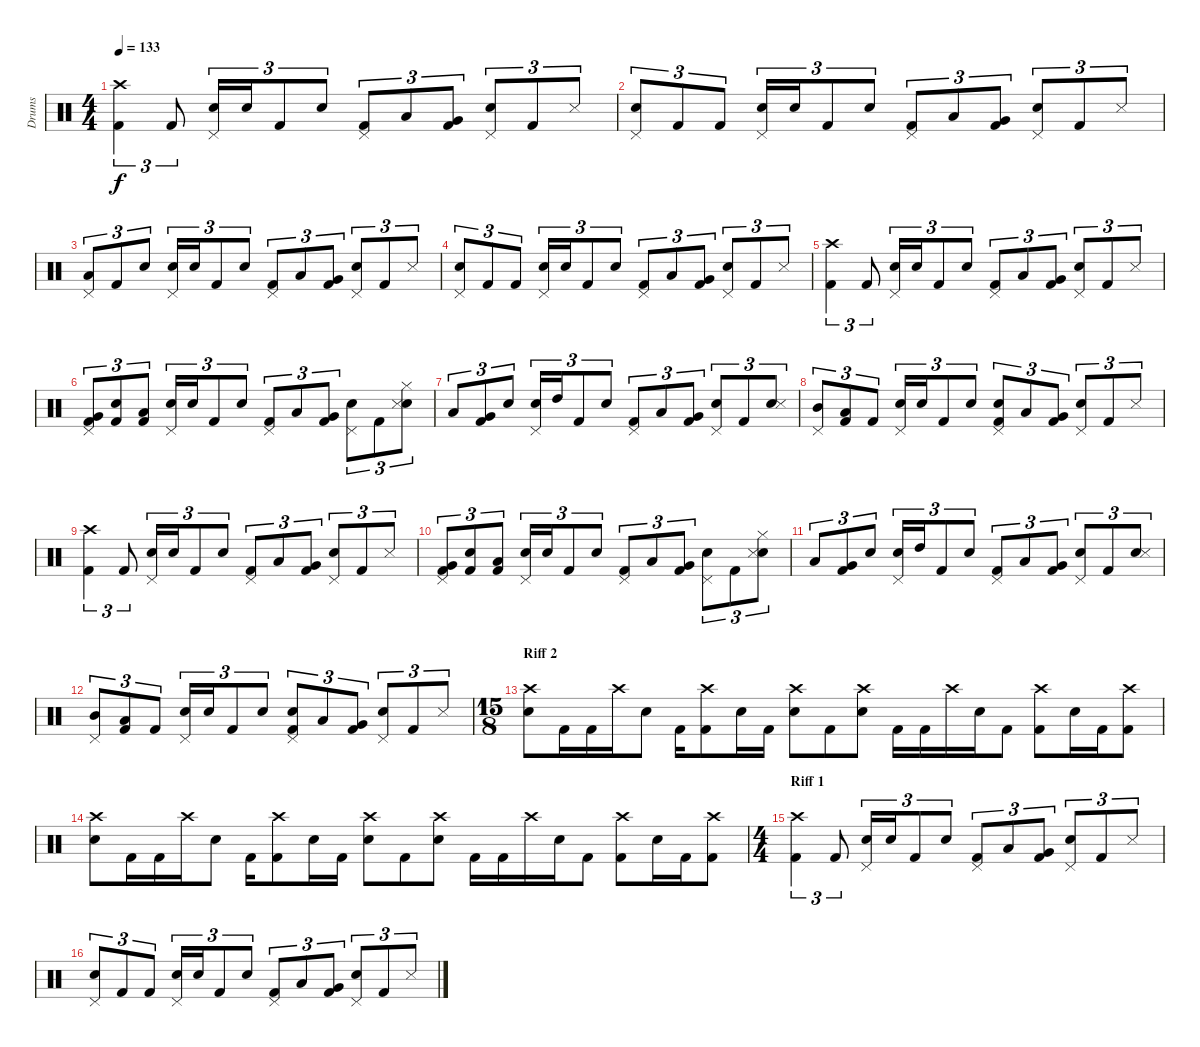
\track ("Drums" "Drums") {instrument percussion}
\staff {score}
\articulation defaults
\ts (4 4)
\tempo 133
\clef neutral
\ks c
("Kick (hit) 2" "Crash high (hit)").4{tu (3 2) dy f} "Kick (hit) 2".8{tu (3 2)} ("Snare (hit) 2" "Pedal Hi-Hat (hit)").16{tu (3 2)} "Snare (hit) 2".16{tu (3 2)} "Kick (hit) 2".8{tu (3 2)} "Snare (hit) 2".8{tu (3 2)} ("Kick (hit) 2" "Pedal Hi-Hat (hit)").8{tu (3 2)} "Low Tom (hit)".8{tu (3 2)} ("Kick (hit) 2" "Very Low Tom (hit)").8{tu (3 2)} ("Snare (hit) 2" "Pedal Hi-Hat (hit)").8{tu (3 2)} "Kick (hit) 2".8{tu (3 2)} "Snare (side stick) 3".8{tu (3 2)} |
("Snare (hit) 2" "Pedal Hi-Hat (hit)").8{tu (3 2)} "Kick (hit) 2".8{tu (3 2)} "Kick (hit) 2".8{tu (3 2)} ("Snare (hit) 2" "Pedal Hi-Hat (hit)").16{tu (3 2)} "Snare (hit) 2".16{tu (3 2)} "Kick (hit) 2".8{tu (3 2)} "Snare (hit) 2".8{tu (3 2)} ("Kick (hit) 2" "Pedal Hi-Hat (hit)").8{tu (3 2)} "Low Tom (hit)".8{tu (3 2)} ("Kick (hit) 2" "Very Low Tom (hit)").8{tu (3 2)} ("Snare (hit) 2" "Pedal Hi-Hat (hit)").8{tu (3 2)} "Kick (hit) 2".8{tu (3 2)} "Snare (side stick) 3".8{tu (3 2)} |
("Low Tom (hit)" "Pedal Hi-Hat (hit)").8{tu (3 2)} "Kick (hit) 2".8{tu (3 2)} "Snare (hit) 2".8{tu (3 2)} ("Snare (hit) 2" "Pedal Hi-Hat (hit)").16{tu (3 2)} "Snare (hit) 2".16{tu (3 2)} "Kick (hit) 2".8{tu (3 2)} "Snare (hit) 2".8{tu (3 2)} ("Kick (hit) 2" "Pedal Hi-Hat (hit)").8{tu (3 2)} "Low Tom (hit)".8{tu (3 2)} ("Kick (hit) 2" "Very Low Tom (hit)").8{tu (3 2)} ("Snare (hit) 2" "Pedal Hi-Hat (hit)").8{tu (3 2)} "Kick (hit) 2".8{tu (3 2)} "Snare (side stick) 3".8{tu (3 2)} |
("Snare (hit) 2" "Pedal Hi-Hat (hit)").8{tu (3 2)} "Kick (hit) 2".8{tu (3 2)} "Kick (hit) 2".8{tu (3 2)} ("Snare (hit) 2" "Pedal Hi-Hat (hit)").16{tu (3 2)} "Snare (hit) 2".16{tu (3 2)} "Kick (hit) 2".8{tu (3 2)} "Snare (hit) 2".8{tu (3 2)} ("Kick (hit) 2" "Pedal Hi-Hat (hit)").8{tu (3 2)} "Low Tom (hit)".8{tu (3 2)} ("Kick (hit) 2" "Very Low Tom (hit)").8{tu (3 2)} ("Snare (hit) 2" "Pedal Hi-Hat (hit)").8{tu (3 2)} "Kick (hit) 2".8{tu (3 2)} "Snare (side stick) 3".8{tu (3 2)} |
("Kick (hit) 2" "Crash high (hit)").4{tu (3 2)} "Kick (hit) 2".8{tu (3 2)} ("Snare (hit) 2" "Pedal Hi-Hat (hit)").16{tu (3 2)} "Snare (hit) 2".16{tu (3 2)} "Kick (hit) 2".8{tu (3 2)} "Snare (hit) 2".8{tu (3 2)} ("Kick (hit) 2" "Pedal Hi-Hat (hit)").8{tu (3 2)} "Low Tom (hit)".8{tu (3 2)} ("Kick (hit) 2" "Very Low Tom (hit)").8{tu (3 2)} ("Snare (hit) 2" "Pedal Hi-Hat (hit)").8{tu (3 2)} "Kick (hit) 2".8{tu (3 2)} "Snare (side stick) 3".8{tu (3 2)} |
("Kick (hit) 2" "Very Low Tom (hit)" "Pedal Hi-Hat (hit)").8{tu (3 2)} ("Kick (hit) 2" "Snare (hit) 2").8{tu (3 2)} ("Kick (hit) 2" "Low Tom (hit)").8{tu (3 2)} ("Snare (hit) 2" "Pedal Hi-Hat (hit)").16{tu (3 2)} "Snare (hit) 2".16{tu (3 2)} "Kick (hit) 2".8{tu (3 2)} "Snare (hit) 2".8{tu (3 2)} ("Kick (hit) 2" "Pedal Hi-Hat (hit)").8{tu (3 2)} "Low Tom (hit)".8{tu (3 2)} ("Kick (hit) 2" "Very Low Tom (hit)").8{tu (3 2)} ("Snare (hit) 2" "Pedal Hi-Hat (hit)").8{tu (3 2)} "Kick (hit) 2".8{tu (3 2)} ("Snare (hit) 2" "Snare (side stick) 3" "Hi-Hat (closed)").8{tu (3 2)} |
"Low Tom (hit)".8{tu (3 2)} ("Kick (hit) 2" "Very Low Tom (hit)").8{tu (3 2)} "Snare (hit) 2".8{tu (3 2)} ("Snare (hit) 2" "Pedal Hi-Hat (hit)").16{tu (3 2)} "High Tom (hit)".16{tu (3 2)} "Kick (hit) 2".8{tu (3 2)} "Snare (hit) 2".8{tu (3 2)} ("Kick (hit) 2" "Pedal Hi-Hat (hit)").8{tu (3 2)} "Low Tom (hit)".8{tu (3 2)} ("Kick (hit) 2" "Very Low Tom (hit)").8{tu (3 2)} ("Snare (hit) 2" "Pedal Hi-Hat (hit)").8{tu (3 2)} "Kick (hit) 2".8{tu (3 2)} ("Snare (hit) 2" "Snare (side stick) 3").8{tu (3 2)} |
("Mid Tom (hit)" "Pedal Hi-Hat (hit)").8{tu (3 2)} ("Kick (hit) 2" "Low Tom (hit)").8{tu (3 2)} "Kick (hit) 2".8{tu (3 2)} ("Snare (hit) 2" "Pedal Hi-Hat (hit)").16{tu (3 2)} "Snare (hit) 2".16{tu (3 2)} "Kick (hit) 2".8{tu (3 2)} "Snare (hit) 2".8{tu (3 2)} ("Kick (hit) 2" "Snare (hit) 2" "Pedal Hi-Hat (hit)").8{tu (3 2)} "Low Tom (hit)".8{tu (3 2)} ("Kick (hit) 2" "Very Low Tom (hit)").8{tu (3 2)} ("Snare (hit) 2" "Pedal Hi-Hat (hit)").8{tu (3 2)} "Kick (hit) 2".8{tu (3 2)} "Snare (side stick) 3".8{tu (3 2)} |
("Kick (hit) 2" "Crash high (hit)").4{tu (3 2)} "Kick (hit) 2".8{tu (3 2)} ("Snare (hit) 2" "Pedal Hi-Hat (hit)").16{tu (3 2)} "Snare (hit) 2".16{tu (3 2)} "Kick (hit) 2".8{tu (3 2)} "Snare (hit) 2".8{tu (3 2)} ("Kick (hit) 2" "Pedal Hi-Hat (hit)").8{tu (3 2)} "Low Tom (hit)".8{tu (3 2)} ("Kick (hit) 2" "Very Low Tom (hit)").8{tu (3 2)} ("Snare (hit) 2" "Pedal Hi-Hat (hit)").8{tu (3 2)} "Kick (hit) 2".8{tu (3 2)} "Snare (side stick) 3".8{tu (3 2)} |
("Kick (hit) 2" "Very Low Tom (hit)" "Pedal Hi-Hat (hit)").8{tu (3 2)} ("Kick (hit) 2" "Snare (hit) 2").8{tu (3 2)} ("Kick (hit) 2" "Low Tom (hit)").8{tu (3 2)} ("Snare (hit) 2" "Pedal Hi-Hat (hit)").16{tu (3 2)} "Snare (hit) 2".16{tu (3 2)} "Kick (hit) 2".8{tu (3 2)} "Snare (hit) 2".8{tu (3 2)} ("Kick (hit) 2" "Pedal Hi-Hat (hit)").8{tu (3 2)} "Low Tom (hit)".8{tu (3 2)} ("Kick (hit) 2" "Very Low Tom (hit)").8{tu (3 2)} ("Snare (hit) 2" "Pedal Hi-Hat (hit)").8{tu (3 2)} "Kick (hit) 2".8{tu (3 2)} ("Snare (hit) 2" "Snare (side stick) 3" "Hi-Hat (closed)").8{tu (3 2)} |
"Low Tom (hit)".8{tu (3 2)} ("Kick (hit) 2" "Very Low Tom (hit)").8{tu (3 2)} "Snare (hit) 2".8{tu (3 2)} ("Snare (hit) 2" "Pedal Hi-Hat (hit)").16{tu (3 2)} "High Tom (hit)".16{tu (3 2)} "Kick (hit) 2".8{tu (3 2)} "Snare (hit) 2".8{tu (3 2)} ("Kick (hit) 2" "Pedal Hi-Hat (hit)").8{tu (3 2)} "Low Tom (hit)".8{tu (3 2)} ("Kick (hit) 2" "Very Low Tom (hit)").8{tu (3 2)} ("Snare (hit) 2" "Pedal Hi-Hat (hit)").8{tu (3 2)} "Kick (hit) 2".8{tu (3 2)} ("Snare (hit) 2" "Snare (side stick) 3").8{tu (3 2)} |
("Mid Tom (hit)" "Pedal Hi-Hat (hit)").8{tu (3 2)} ("Kick (hit) 2" "Low Tom (hit)").8{tu (3 2)} "Kick (hit) 2".8{tu (3 2)} ("Snare (hit) 2" "Pedal Hi-Hat (hit)").16{tu (3 2)} "Snare (hit) 2".16{tu (3 2)} "Kick (hit) 2".8{tu (3 2)} "Snare (hit) 2".8{tu (3 2)} ("Kick (hit) 2" "Snare (hit) 2" "Pedal Hi-Hat (hit)").8{tu (3 2)} "Low Tom (hit)".8{tu (3 2)} ("Kick (hit) 2" "Very Low Tom (hit)").8{tu (3 2)} ("Snare (hit) 2" "Pedal Hi-Hat (hit)").8{tu (3 2)} "Kick (hit) 2".8{tu (3 2)} "Snare (side stick) 3".8{tu (3 2)} |
\ts (15 8)
\section ("" "Riff 2")
("Snare (hit) 2" "Crash high (hit)").8 "Kick (hit) 2".16 "Kick (hit) 2".16 "Crash high (hit)".16 "Snare (hit) 2".8 "Kick (hit) 2".16 ("Kick (hit) 2" "Crash high (hit)").8 "Snare (hit) 2".16 "Kick (hit) 2".16 ("Snare (hit) 2" "Crash high (hit)").8 "Kick (hit) 2".8 ("Snare (hit) 2" "Crash high (hit)").8 "Kick (hit) 2".16 "Kick (hit) 2".16 "Crash high (hit)".16 "Snare (hit) 2".16 "Kick (hit) 2".8 ("Kick (hit) 2" "Crash high (hit)").8 "Snare (hit) 2".16 "Kick (hit) 2".16 ("Kick (hit) 2" "Crash high (hit)").8 |
("Snare (hit) 2" "Crash high (hit)").8 "Kick (hit) 2".16 "Kick (hit) 2".16 "Crash high (hit)".16 "Snare (hit) 2".8 "Kick (hit) 2".16 ("Kick (hit) 2" "Crash high (hit)").8 "Snare (hit) 2".16 "Kick (hit) 2".16 ("Snare (hit) 2" "Crash high (hit)").8 "Kick (hit) 2".8 ("Snare (hit) 2" "Crash high (hit)").8 "Kick (hit) 2".16 "Kick (hit) 2".16 "Crash high (hit)".16 "Snare (hit) 2".16 "Kick (hit) 2".8 ("Kick (hit) 2" "Crash high (hit)").8 "Snare (hit) 2".16 "Kick (hit) 2".16 ("Kick (hit) 2" "Crash high (hit)").8 |
\ts (4 4)
\section ("" "Riff 1")
("Kick (hit) 2" "Crash high (hit)").4{tu (3 2)} "Kick (hit) 2".8{tu (3 2)} ("Snare (hit) 2" "Pedal Hi-Hat (hit)").16{tu (3 2)} "Snare (hit) 2".16{tu (3 2)} "Kick (hit) 2".8{tu (3 2)} "Snare (hit) 2".8{tu (3 2)} ("Kick (hit) 2" "Pedal Hi-Hat (hit)").8{tu (3 2)} "Low Tom (hit)".8{tu (3 2)} ("Kick (hit) 2" "Very Low Tom (hit)").8{tu (3 2)} ("Snare (hit) 2" "Pedal Hi-Hat (hit)").8{tu (3 2)} "Kick (hit) 2".8{tu (3 2)} "Snare (side stick) 3".8{tu (3 2)} |
("Snare (hit) 2" "Pedal Hi-Hat (hit)").8{tu (3 2)} "Kick (hit) 2".8{tu (3 2)} "Kick (hit) 2".8{tu (3 2)} ("Snare (hit) 2" "Pedal Hi-Hat (hit)").16{tu (3 2)} "Snare (hit) 2".16{tu (3 2)} "Kick (hit) 2".8{tu (3 2)} "Snare (hit) 2".8{tu (3 2)} ("Kick (hit) 2" "Pedal Hi-Hat (hit)").8{tu (3 2)} "Low Tom (hit)".8{tu (3 2)} ("Kick (hit) 2" "Very Low Tom (hit)").8{tu (3 2)} ("Snare (hit) 2" "Pedal Hi-Hat (hit)").8{tu (3 2)} "Kick (hit) 2".8{tu (3 2)} "Snare (side stick) 3".8{tu (3 2)}
